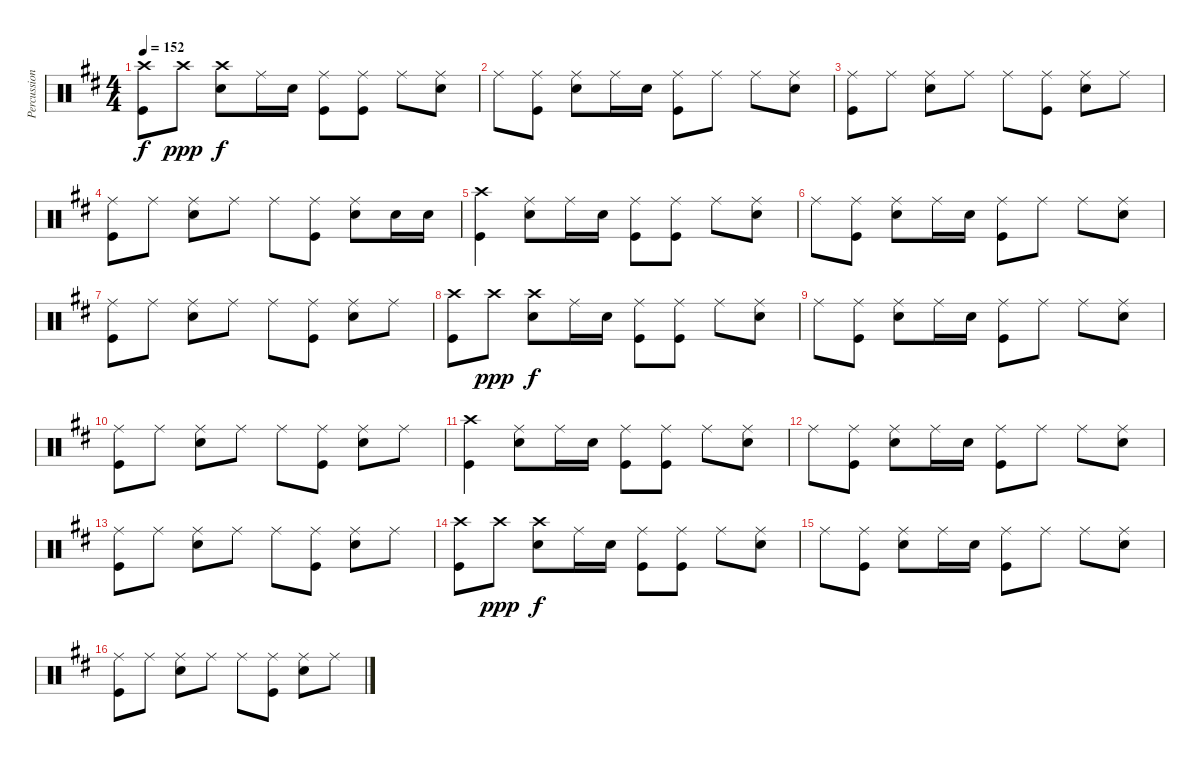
\track ("Percussion" "Percussion") {instrument percussion}
\staff {score}
\articulation defaults
\ts (4 4)
\tempo 152
\clef neutral
\ks d
("Crash high (hit)" "Kick (hit)").8{dy f} "Crash high (hit)".8{dy ppp} ("Crash high (hit)" "Snare (hit) 2").8{dy f} "Ride (middle)".16 "Snare (hit) 2".16 ("Ride (middle)" "Kick (hit)").8 ("Ride (middle)" "Kick (hit)").8 "Ride (middle)".8 ("Ride (middle)" "Snare (hit) 2").8 |
"Ride (middle)".8 ("Ride (middle)" "Kick (hit)").8 ("Ride (middle)" "Snare (hit) 2").8 "Ride (middle)".16 "Snare (hit) 2".16 ("Ride (middle)" "Kick (hit)").8 "Ride (middle)".8 "Ride (middle)".8 ("Ride (middle)" "Snare (hit) 2").8 |
("Ride (middle)" "Kick (hit)").8 "Ride (middle)".8 ("Ride (middle)" "Snare (hit) 2").8 "Ride (middle)".8 "Ride (middle)".8 ("Ride (middle)" "Kick (hit)").8 ("Ride (middle)" "Snare (hit) 2").8 "Ride (middle)".8 |
("Ride (middle)" "Kick (hit)").8 "Ride (middle)".8 ("Ride (middle)" "Snare (hit) 2").8 "Ride (middle)".8 "Ride (middle)".8 ("Ride (middle)" "Kick (hit)").8 ("Ride (middle)" "Snare (hit) 2").8 "Snare (hit) 2".16 "Snare (hit) 2".16 |
("Crash high (hit)" "Kick (hit)").4 ("Ride (middle)" "Snare (hit) 2").8 "Ride (middle)".16 "Snare (hit) 2".16 ("Ride (middle)" "Kick (hit)").8 ("Ride (middle)" "Kick (hit)").8 "Ride (middle)".8 ("Ride (middle)" "Snare (hit) 2").8 |
"Ride (middle)".8 ("Ride (middle)" "Kick (hit)").8 ("Ride (middle)" "Snare (hit) 2").8 "Ride (middle)".16 "Snare (hit) 2".16 ("Ride (middle)" "Kick (hit)").8 "Ride (middle)".8 "Ride (middle)".8 ("Ride (middle)" "Snare (hit) 2").8 |
("Ride (middle)" "Kick (hit)").8 "Ride (middle)".8 ("Ride (middle)" "Snare (hit) 2").8 "Ride (middle)".8 "Ride (middle)".8 ("Ride (middle)" "Kick (hit)").8 ("Ride (middle)" "Snare (hit) 2").8 "Ride (middle)".8 |
("Crash high (hit)" "Kick (hit)").8 "Crash high (hit)".8{dy ppp} ("Crash high (hit)" "Snare (hit) 2").8{dy f} "Ride (middle)".16 "Snare (hit) 2".16 ("Ride (middle)" "Kick (hit)").8 ("Ride (middle)" "Kick (hit)").8 "Ride (middle)".8 ("Ride (middle)" "Snare (hit) 2").8 |
"Ride (middle)".8 ("Ride (middle)" "Kick (hit)").8 ("Ride (middle)" "Snare (hit) 2").8 "Ride (middle)".16 "Snare (hit) 2".16 ("Ride (middle)" "Kick (hit)").8 "Ride (middle)".8 "Ride (middle)".8 ("Ride (middle)" "Snare (hit) 2").8 |
("Ride (middle)" "Kick (hit)").8 "Ride (middle)".8 ("Ride (middle)" "Snare (hit) 2").8 "Ride (middle)".8 "Ride (middle)".8 ("Ride (middle)" "Kick (hit)").8 ("Ride (middle)" "Snare (hit) 2").8 "Ride (middle)".8 |
("Crash high (hit)" "Kick (hit)").4 ("Ride (middle)" "Snare (hit) 2").8 "Ride (middle)".16 "Snare (hit) 2".16 ("Ride (middle)" "Kick (hit)").8 ("Ride (middle)" "Kick (hit)").8 "Ride (middle)".8 ("Ride (middle)" "Snare (hit) 2").8 |
"Ride (middle)".8 ("Ride (middle)" "Kick (hit)").8 ("Ride (middle)" "Snare (hit) 2").8 "Ride (middle)".16 "Snare (hit) 2".16 ("Ride (middle)" "Kick (hit)").8 "Ride (middle)".8 "Ride (middle)".8 ("Ride (middle)" "Snare (hit) 2").8 |
("Ride (middle)" "Kick (hit)").8 "Ride (middle)".8 ("Ride (middle)" "Snare (hit) 2").8 "Ride (middle)".8 "Ride (middle)".8 ("Ride (middle)" "Kick (hit)").8 ("Ride (middle)" "Snare (hit) 2").8 "Ride (middle)".8 |
("Crash high (hit)" "Kick (hit)").8 "Crash high (hit)".8{dy ppp} ("Crash high (hit)" "Snare (hit) 2").8{dy f} "Ride (middle)".16 "Snare (hit) 2".16 ("Ride (middle)" "Kick (hit)").8 ("Ride (middle)" "Kick (hit)").8 "Ride (middle)".8 ("Ride (middle)" "Snare (hit) 2").8 |
"Ride (middle)".8 ("Ride (middle)" "Kick (hit)").8 ("Ride (middle)" "Snare (hit) 2").8 "Ride (middle)".16 "Snare (hit) 2".16 ("Ride (middle)" "Kick (hit)").8 "Ride (middle)".8 "Ride (middle)".8 ("Ride (middle)" "Snare (hit) 2").8 |
("Ride (middle)" "Kick (hit)").8 "Ride (middle)".8 ("Ride (middle)" "Snare (hit) 2").8 "Ride (middle)".8 "Ride (middle)".8 ("Ride (middle)" "Kick (hit)").8 ("Ride (middle)" "Snare (hit) 2").8 "Ride (middle)".8
